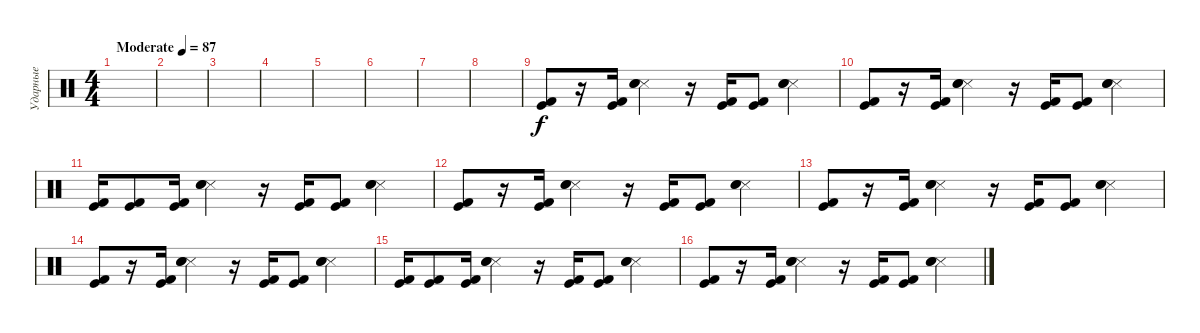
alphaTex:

\track ("Ударные" "Ударные") {instrument percussion}
\staff {score}
\articulation defaults
\ts (4 4)
\tempo (87 "Moderate")
\clef neutral
\ks c
|
|
|
|
|
|
|
|
("Kick (hit) 2" "Kick (hit)").8 r.16 ("Kick (hit) 2" "Kick (hit)").16 ("Snare (side stick) 3" "Electric Snare (hit)" "Electric Snare (hit)").4 r.16 ("Kick (hit)" "Kick (hit) 2").16 ("Kick (hit)" "Kick (hit) 2").8 ("Snare (side stick) 3" "Electric Snare (hit)" "Electric Snare (hit)").4 |
("Kick (hit) 2" "Kick (hit)").8 r.16 ("Kick (hit) 2" "Kick (hit)").16 ("Snare (side stick) 3" "Electric Snare (hit)" "Electric Snare (hit)").4 r.16 ("Kick (hit)" "Kick (hit) 2").16 ("Kick (hit)" "Kick (hit) 2").8 ("Snare (side stick) 3" "Electric Snare (hit)" "Electric Snare (hit)").4 |
("Kick (hit) 2" "Kick (hit)").16 ("Kick (hit) 2" "Kick (hit)").8 ("Kick (hit) 2" "Kick (hit)").16 ("Snare (side stick) 3" "Electric Snare (hit)" "Electric Snare (hit)").4 r.16 ("Kick (hit)" "Kick (hit) 2").16 ("Kick (hit)" "Kick (hit) 2").8 ("Snare (side stick) 3" "Electric Snare (hit)" "Electric Snare (hit)").4 |
("Kick (hit) 2" "Kick (hit)").8 r.16 ("Kick (hit) 2" "Kick (hit)").16 ("Snare (side stick) 3" "Electric Snare (hit)" "Electric Snare (hit)").4 r.16 ("Kick (hit)" "Kick (hit) 2").16 ("Kick (hit)" "Kick (hit) 2").8 ("Snare (side stick) 3" "Electric Snare (hit)" "Electric Snare (hit)").4 |
("Kick (hit) 2" "Kick (hit)").8 r.16 ("Kick (hit) 2" "Kick (hit)").16 ("Snare (side stick) 3" "Electric Snare (hit)" "Electric Snare (hit)").4 r.16 ("Kick (hit)" "Kick (hit) 2").16 ("Kick (hit)" "Kick (hit) 2").8 ("Snare (side stick) 3" "Electric Snare (hit)" "Electric Snare (hit)").4 |
("Kick (hit) 2" "Kick (hit)").8 r.16 ("Kick (hit) 2" "Kick (hit)").16 ("Snare (side stick) 3" "Electric Snare (hit)" "Electric Snare (hit)").4 r.16 ("Kick (hit)" "Kick (hit) 2").16 ("Kick (hit)" "Kick (hit) 2").8 ("Snare (side stick) 3" "Electric Snare (hit)" "Electric Snare (hit)").4 |
("Kick (hit) 2" "Kick (hit)").16 ("Kick (hit) 2" "Kick (hit)").8 ("Kick (hit) 2" "Kick (hit)").16 ("Snare (side stick) 3" "Electric Snare (hit)" "Electric Snare (hit)").4 r.16 ("Kick (hit)" "Kick (hit) 2").16 ("Kick (hit)" "Kick (hit) 2").8 ("Snare (side stick) 3" "Electric Snare (hit)" "Electric Snare (hit)").4 |
("Kick (hit) 2" "Kick (hit)").8 r.16 ("Kick (hit) 2" "Kick (hit)").16 ("Snare (side stick) 3" "Electric Snare (hit)" "Electric Snare (hit)").4 r.16 ("Kick (hit)" "Kick (hit) 2").16 ("Kick (hit)" "Kick (hit) 2").8 ("Snare (side stick) 3" "Electric Snare (hit)" "Electric Snare (hit)").4
